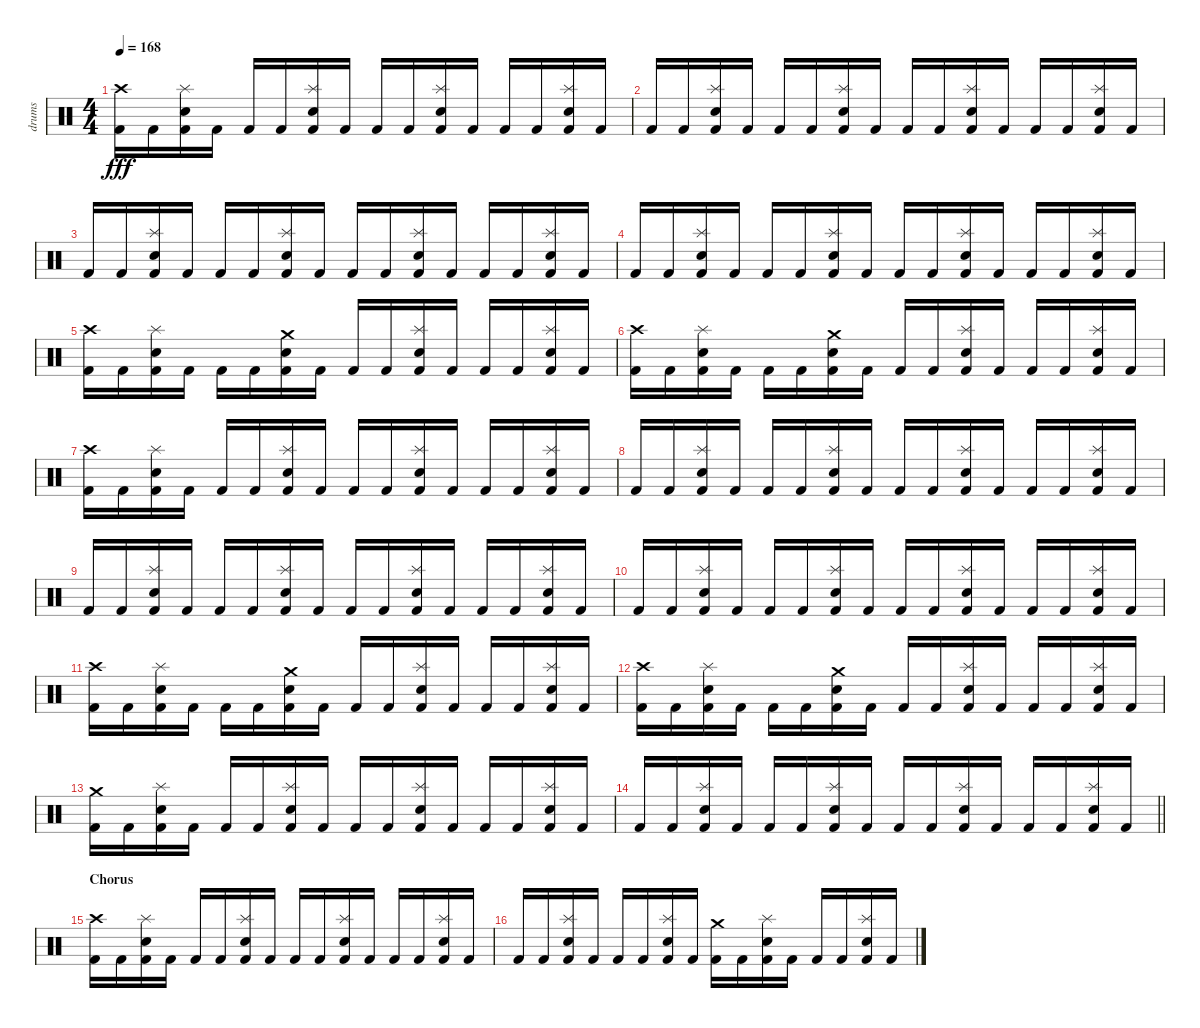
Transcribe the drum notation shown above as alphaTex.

\track ("drums" "drums") {instrument percussion}
\staff {score}
\articulation defaults
\ts (4 4)
\tempo 168
\clef neutral
\ks c
("Crash high (hit)" "Kick (hit) 2").16{dy fff} "Kick (hit) 2".16 ("Splash (hit)" "Snare (hit) 2" "Kick (hit) 2").16 "Kick (hit) 2".16 "Kick (hit) 2".16 "Kick (hit) 2".16 ("Splash (hit)" "Snare (hit) 2" "Kick (hit) 2").16 "Kick (hit) 2".16 "Kick (hit) 2".16 "Kick (hit) 2".16 ("Splash (hit)" "Snare (hit) 2" "Kick (hit) 2").16 "Kick (hit) 2".16 "Kick (hit) 2".16 "Kick (hit) 2".16 ("Splash (hit)" "Snare (hit) 2" "Kick (hit) 2").16 "Kick (hit) 2".16 |
"Kick (hit) 2".16 "Kick (hit) 2".16 ("Splash (hit)" "Snare (hit) 2" "Kick (hit) 2").16 "Kick (hit) 2".16 "Kick (hit) 2".16 "Kick (hit) 2".16 ("Splash (hit)" "Snare (hit) 2" "Kick (hit) 2").16 "Kick (hit) 2".16 "Kick (hit) 2".16 "Kick (hit) 2".16 ("Splash (hit)" "Snare (hit) 2" "Kick (hit) 2").16 "Kick (hit) 2".16 "Kick (hit) 2".16 "Kick (hit) 2".16 ("Splash (hit)" "Snare (hit) 2" "Kick (hit) 2").16 "Kick (hit) 2".16 |
"Kick (hit) 2".16 "Kick (hit) 2".16 ("Splash (hit)" "Snare (hit) 2" "Kick (hit) 2").16 "Kick (hit) 2".16 "Kick (hit) 2".16 "Kick (hit) 2".16 ("Splash (hit)" "Snare (hit) 2" "Kick (hit) 2").16 "Kick (hit) 2".16 "Kick (hit) 2".16 "Kick (hit) 2".16 ("Splash (hit)" "Snare (hit) 2" "Kick (hit) 2").16 "Kick (hit) 2".16 "Kick (hit) 2".16 "Kick (hit) 2".16 ("Splash (hit)" "Snare (hit) 2" "Kick (hit) 2").16 "Kick (hit) 2".16 |
"Kick (hit) 2".16 "Kick (hit) 2".16 ("Splash (hit)" "Snare (hit) 2" "Kick (hit) 2").16 "Kick (hit) 2".16 "Kick (hit) 2".16 "Kick (hit) 2".16 ("Splash (hit)" "Snare (hit) 2" "Kick (hit) 2").16 "Kick (hit) 2".16 "Kick (hit) 2".16 "Kick (hit) 2".16 ("Splash (hit)" "Snare (hit) 2" "Kick (hit) 2").16 "Kick (hit) 2".16 "Kick (hit) 2".16 "Kick (hit) 2".16 ("Splash (hit)" "Snare (hit) 2" "Kick (hit) 2").16 "Kick (hit) 2".16 |
("Crash high (hit)" "Kick (hit) 2").16 "Kick (hit) 2".16 ("Splash (hit)" "Snare (hit) 2" "Kick (hit) 2").16 "Kick (hit) 2".16 "Kick (hit) 2".16 "Kick (hit) 2".16 ("Crash medium (hit)" "Snare (hit) 2" "Kick (hit) 2").16 "Kick (hit) 2".16 "Kick (hit) 2".16 "Kick (hit) 2".16 ("Splash (hit)" "Snare (hit) 2" "Kick (hit) 2").16 "Kick (hit) 2".16 "Kick (hit) 2".16 "Kick (hit) 2".16 ("Splash (hit)" "Snare (hit) 2" "Kick (hit) 2").16 "Kick (hit) 2".16 |
("Crash high (hit)" "Kick (hit) 2").16 "Kick (hit) 2".16 ("Splash (hit)" "Snare (hit) 2" "Kick (hit) 2").16 "Kick (hit) 2".16 "Kick (hit) 2".16 "Kick (hit) 2".16 ("Crash medium (hit)" "Snare (hit) 2" "Kick (hit) 2").16 "Kick (hit) 2".16 "Kick (hit) 2".16 "Kick (hit) 2".16 ("Splash (hit)" "Snare (hit) 2" "Kick (hit) 2").16 "Kick (hit) 2".16 "Kick (hit) 2".16 "Kick (hit) 2".16 ("Splash (hit)" "Snare (hit) 2" "Kick (hit) 2").16 "Kick (hit) 2".16 |
("Crash high (hit)" "Kick (hit) 2").16 "Kick (hit) 2".16 ("Splash (hit)" "Snare (hit) 2" "Kick (hit) 2").16 "Kick (hit) 2".16 "Kick (hit) 2".16 "Kick (hit) 2".16 ("Splash (hit)" "Snare (hit) 2" "Kick (hit) 2").16 "Kick (hit) 2".16 "Kick (hit) 2".16 "Kick (hit) 2".16 ("Splash (hit)" "Snare (hit) 2" "Kick (hit) 2").16 "Kick (hit) 2".16 "Kick (hit) 2".16 "Kick (hit) 2".16 ("Splash (hit)" "Snare (hit) 2" "Kick (hit) 2").16 "Kick (hit) 2".16 |
"Kick (hit) 2".16 "Kick (hit) 2".16 ("Splash (hit)" "Snare (hit) 2" "Kick (hit) 2").16 "Kick (hit) 2".16 "Kick (hit) 2".16 "Kick (hit) 2".16 ("Splash (hit)" "Snare (hit) 2" "Kick (hit) 2").16 "Kick (hit) 2".16 "Kick (hit) 2".16 "Kick (hit) 2".16 ("Splash (hit)" "Snare (hit) 2" "Kick (hit) 2").16 "Kick (hit) 2".16 "Kick (hit) 2".16 "Kick (hit) 2".16 ("Splash (hit)" "Snare (hit) 2" "Kick (hit) 2").16 "Kick (hit) 2".16 |
"Kick (hit) 2".16 "Kick (hit) 2".16 ("Splash (hit)" "Snare (hit) 2" "Kick (hit) 2").16 "Kick (hit) 2".16 "Kick (hit) 2".16 "Kick (hit) 2".16 ("Splash (hit)" "Snare (hit) 2" "Kick (hit) 2").16 "Kick (hit) 2".16 "Kick (hit) 2".16 "Kick (hit) 2".16 ("Splash (hit)" "Snare (hit) 2" "Kick (hit) 2").16 "Kick (hit) 2".16 "Kick (hit) 2".16 "Kick (hit) 2".16 ("Splash (hit)" "Snare (hit) 2" "Kick (hit) 2").16 "Kick (hit) 2".16 |
"Kick (hit) 2".16 "Kick (hit) 2".16 ("Splash (hit)" "Snare (hit) 2" "Kick (hit) 2").16 "Kick (hit) 2".16 "Kick (hit) 2".16 "Kick (hit) 2".16 ("Splash (hit)" "Snare (hit) 2" "Kick (hit) 2").16 "Kick (hit) 2".16 "Kick (hit) 2".16 "Kick (hit) 2".16 ("Splash (hit)" "Snare (hit) 2" "Kick (hit) 2").16 "Kick (hit) 2".16 "Kick (hit) 2".16 "Kick (hit) 2".16 ("Splash (hit)" "Snare (hit) 2" "Kick (hit) 2").16 "Kick (hit) 2".16 |
("Crash high (hit)" "Kick (hit) 2").16 "Kick (hit) 2".16 ("Splash (hit)" "Snare (hit) 2" "Kick (hit) 2").16 "Kick (hit) 2".16 "Kick (hit) 2".16 "Kick (hit) 2".16 ("Crash medium (hit)" "Snare (hit) 2" "Kick (hit) 2").16 "Kick (hit) 2".16 "Kick (hit) 2".16 "Kick (hit) 2".16 ("Splash (hit)" "Snare (hit) 2" "Kick (hit) 2").16 "Kick (hit) 2".16 "Kick (hit) 2".16 "Kick (hit) 2".16 ("Splash (hit)" "Snare (hit) 2" "Kick (hit) 2").16 "Kick (hit) 2".16 |
("Crash high (hit)" "Kick (hit) 2").16 "Kick (hit) 2".16 ("Splash (hit)" "Snare (hit) 2" "Kick (hit) 2").16 "Kick (hit) 2".16 "Kick (hit) 2".16 "Kick (hit) 2".16 ("Crash medium (hit)" "Snare (hit) 2" "Kick (hit) 2").16 "Kick (hit) 2".16 "Kick (hit) 2".16 "Kick (hit) 2".16 ("Splash (hit)" "Snare (hit) 2" "Kick (hit) 2").16 "Kick (hit) 2".16 "Kick (hit) 2".16 "Kick (hit) 2".16 ("Splash (hit)" "Snare (hit) 2" "Kick (hit) 2").16 "Kick (hit) 2".16 |
("Crash medium (hit)" "Kick (hit) 2").16 "Kick (hit) 2".16 ("Splash (hit)" "Snare (hit) 2" "Kick (hit) 2").16 "Kick (hit) 2".16 "Kick (hit) 2".16 "Kick (hit) 2".16 ("Splash (hit)" "Snare (hit) 2" "Kick (hit) 2").16 "Kick (hit) 2".16 "Kick (hit) 2".16 "Kick (hit) 2".16 ("Splash (hit)" "Snare (hit) 2" "Kick (hit) 2").16 "Kick (hit) 2".16 "Kick (hit) 2".16 "Kick (hit) 2".16 ("Splash (hit)" "Snare (hit) 2" "Kick (hit) 2").16 "Kick (hit) 2".16 |
\barLineRight lightlight "Kick (hit) 2".16 "Kick (hit) 2".16
("Splash (hit)" "Snare (hit) 2" "Kick (hit) 2").16 "Kick (hit) 2".16 "Kick (hit) 2".16 "Kick (hit) 2".16 ("Splash (hit)" "Snare (hit) 2" "Kick (hit) 2").16 "Kick (hit) 2".16 "Kick (hit) 2".16 "Kick (hit) 2".16 ("Splash (hit)" "Snare (hit) 2" "Kick (hit) 2").16 "Kick (hit) 2".16 "Kick (hit) 2".16 "Kick (hit) 2".16 ("Splash (hit)" "Snare (hit) 2" "Kick (hit) 2").16 "Kick (hit) 2".16 |
\section ("" "Chorus")
("Crash high (hit)" "Kick (hit) 2").16 "Kick (hit) 2".16 ("Splash (hit)" "Snare (hit) 2" "Kick (hit) 2").16 "Kick (hit) 2".16 "Kick (hit) 2".16 "Kick (hit) 2".16 ("Splash (hit)" "Snare (hit) 2" "Kick (hit) 2").16 "Kick (hit) 2".16 "Kick (hit) 2".16 "Kick (hit) 2".16 ("Splash (hit)" "Snare (hit) 2" "Kick (hit) 2").16 "Kick (hit) 2".16 "Kick (hit) 2".16 "Kick (hit) 2".16 ("Splash (hit)" "Snare (hit) 2" "Kick (hit) 2").16 "Kick (hit) 2".16 |
"Kick (hit) 2".16 "Kick (hit) 2".16 ("Splash (hit)" "Snare (hit) 2" "Kick (hit) 2").16 "Kick (hit) 2".16 "Kick (hit) 2".16 "Kick (hit) 2".16 ("Splash (hit)" "Snare (hit) 2" "Kick (hit) 2").16 "Kick (hit) 2".16 ("Crash medium (hit)" "Kick (hit) 2").16 "Kick (hit) 2".16 ("Splash (hit)" "Snare (hit) 2" "Kick (hit) 2").16 "Kick (hit) 2".16 "Kick (hit) 2".16 "Kick (hit) 2".16 ("Splash (hit)" "Snare (hit) 2" "Kick (hit) 2").16 "Kick (hit) 2".16
